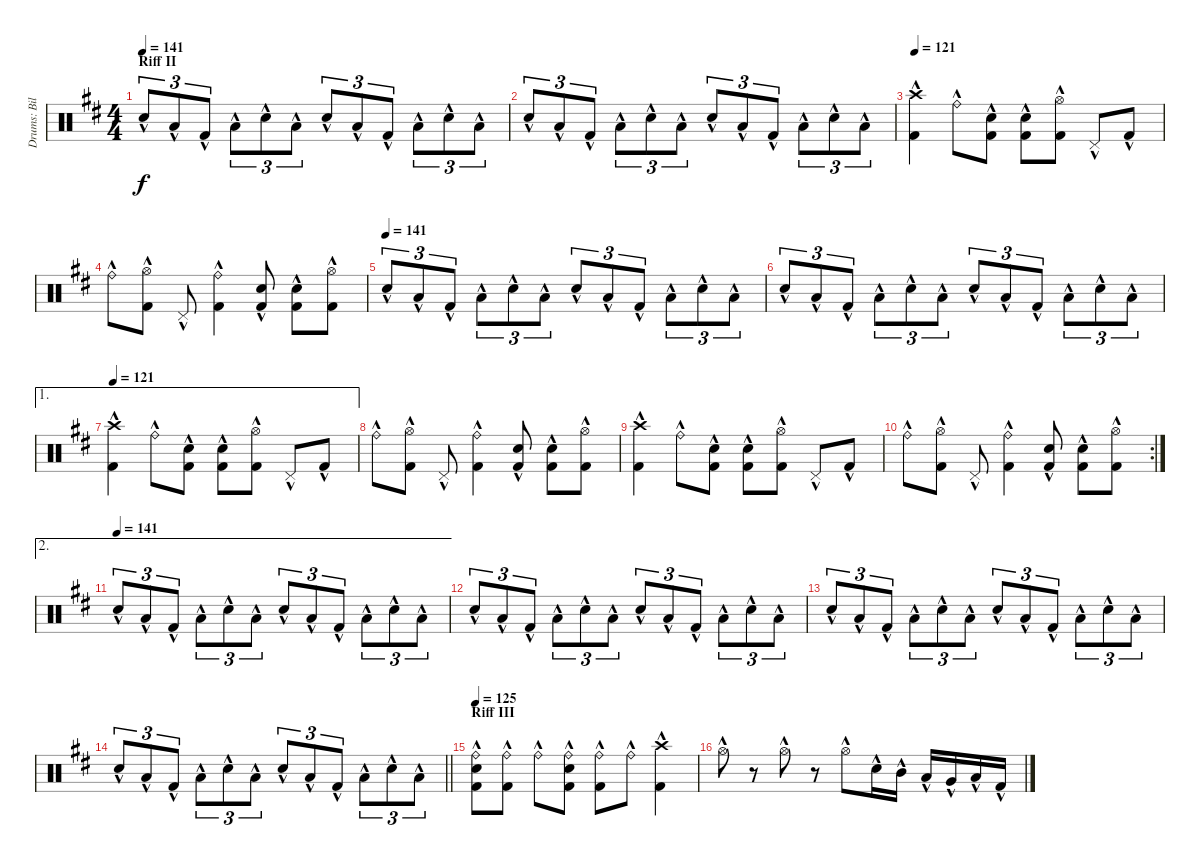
\track ("Drums: Bill" "Drums: Bil") {instrument percussion}
\staff {score}
\articulation defaults
\ts (4 4)
\section ("" "Riff II")
\tempo 141
\clef neutral
\ks d "Electric Snare (hit)"{hac}.8{tu (3 2) dy f} "Low Tom (hit)"{hac}.8{tu (3 2)} "Kick (hit) 2"{hac}.8{tu (3 2)} "Low Tom (hit)"{hac}.8{tu (3 2)} "Electric Snare (hit)"{hac}.8{tu (3 2)} "Low Tom (hit)"{hac}.8{tu (3 2)} "Electric Snare (hit)"{hac}.8{tu (3 2)} "Low Tom (hit)"{hac}.8{tu (3 2)} "Kick (hit) 2"{hac}.8{tu (3 2)} "Low Tom (hit)"{hac}.8{tu (3 2)} "Electric Snare (hit)"{hac}.8{tu (3 2)} "Low Tom (hit)"{hac}.8{tu (3 2)}
|
"Electric Snare (hit)"{hac}.8{tu (3 2)} "Low Tom (hit)"{hac}.8{tu (3 2)} "Kick (hit) 2"{hac}.8{tu (3 2)} "Low Tom (hit)"{hac}.8{tu (3 2)} "Electric Snare (hit)"{hac}.8{tu (3 2)} "Low Tom (hit)"{hac}.8{tu (3 2)} "Electric Snare (hit)"{hac}.8{tu (3 2)} "Low Tom (hit)"{hac}.8{tu (3 2)} "Kick (hit) 2"{hac}.8{tu (3 2)} "Low Tom (hit)"{hac}.8{tu (3 2)} "Electric Snare (hit)"{hac}.8{tu (3 2)} "Low Tom (hit)"{hac}.8{tu (3 2)} |
\tempo 121
("Crash high (hit)"{hac} "Kick (hit) 2"{hac}).4 "Ride (bell)"{hac}.8 ("Electric Snare (hit)"{hac} "Kick (hit) 2"{hac}).8 ("Electric Snare (hit)"{hac} "Kick (hit) 2"{hac}).8 ("Hi-Hat (open)"{hac} "Kick (hit) 2"{hac}).8 "Pedal Hi-Hat (hit)"{hac}.8 "Kick (hit) 2"{hac}.8 |
"Ride (bell)"{hac}.8 ("Hi-Hat (open)"{hac} "Kick (hit) 2"{hac}).8 "Pedal Hi-Hat (hit)"{hac}.8 ("Ride (bell)"{hac} "Kick (hit) 2"{hac}).4 ("Electric Snare (hit)"{hac} "Kick (hit) 2"{hac}).8 ("Electric Snare (hit)"{hac} "Kick (hit) 2"{hac}).8 ("Hi-Hat (open)"{hac} "Kick (hit) 2"{hac}).8 |
\tempo (141)
"Electric Snare (hit)"{hac}.8{tu (3 2)} "Low Tom (hit)"{hac}.8{tu (3 2)} "Kick (hit) 2"{hac}.8{tu (3 2)} "Low Tom (hit)"{hac}.8{tu (3 2)} "Electric Snare (hit)"{hac}.8{tu (3 2)} "Low Tom (hit)"{hac}.8{tu (3 2)} "Electric Snare (hit)"{hac}.8{tu (3 2)} "Low Tom (hit)"{hac}.8{tu (3 2)} "Kick (hit) 2"{hac}.8{tu (3 2)} "Low Tom (hit)"{hac}.8{tu (3 2)} "Electric Snare (hit)"{hac}.8{tu (3 2)} "Low Tom (hit)"{hac}.8{tu (3 2)} |
"Electric Snare (hit)"{hac}.8{tu (3 2)} "Low Tom (hit)"{hac}.8{tu (3 2)} "Kick (hit) 2"{hac}.8{tu (3 2)} "Low Tom (hit)"{hac}.8{tu (3 2)} "Electric Snare (hit)"{hac}.8{tu (3 2)} "Low Tom (hit)"{hac}.8{tu (3 2)} "Electric Snare (hit)"{hac}.8{tu (3 2)} "Low Tom (hit)"{hac}.8{tu (3 2)} "Kick (hit) 2"{hac}.8{tu (3 2)} "Low Tom (hit)"{hac}.8{tu (3 2)} "Electric Snare (hit)"{hac}.8{tu (3 2)} "Low Tom (hit)"{hac}.8{tu (3 2)} |
\ae 1
\tempo 121
("Crash high (hit)"{hac} "Kick (hit) 2"{hac}).4 "Ride (bell)"{hac}.8 ("Electric Snare (hit)"{hac} "Kick (hit) 2"{hac}).8 ("Electric Snare (hit)"{hac} "Kick (hit) 2"{hac}).8 ("Hi-Hat (open)"{hac} "Kick (hit) 2"{hac}).8 "Pedal Hi-Hat (hit)"{hac}.8 "Kick (hit) 2"{hac}.8 |
"Ride (bell)"{hac}.8 ("Hi-Hat (open)"{hac} "Kick (hit) 2"{hac}).8 "Pedal Hi-Hat (hit)"{hac}.8 ("Ride (bell)"{hac} "Kick (hit) 2"{hac}).4 ("Electric Snare (hit)"{hac} "Kick (hit) 2"{hac}).8 ("Electric Snare (hit)"{hac} "Kick (hit) 2"{hac}).8 ("Hi-Hat (open)"{hac} "Kick (hit) 2"{hac}).8 |
("Crash high (hit)"{hac} "Kick (hit) 2"{hac}).4 "Ride (bell)"{hac}.8 ("Electric Snare (hit)"{hac} "Kick (hit) 2"{hac}).8 ("Electric Snare (hit)"{hac} "Kick (hit) 2"{hac}).8 ("Hi-Hat (open)"{hac} "Kick (hit) 2"{hac}).8 "Pedal Hi-Hat (hit)"{hac}.8 "Kick (hit) 2"{hac}.8 |
\rc 2 "Ride (bell)"{hac}.8
("Hi-Hat (open)"{hac} "Kick (hit) 2"{hac}).8 "Pedal Hi-Hat (hit)"{hac}.8 ("Ride (bell)"{hac} "Kick (hit) 2"{hac}).4 ("Electric Snare (hit)"{hac} "Kick (hit) 2"{hac}).8 ("Electric Snare (hit)"{hac} "Kick (hit) 2"{hac}).8 ("Hi-Hat (open)"{hac} "Kick (hit) 2"{hac}).8 |
\ae 2
\tempo (141)
"Electric Snare (hit)"{hac}.8{tu (3 2)} "Low Tom (hit)"{hac}.8{tu (3 2)} "Kick (hit) 2"{hac}.8{tu (3 2)} "Low Tom (hit)"{hac}.8{tu (3 2)} "Electric Snare (hit)"{hac}.8{tu (3 2)} "Low Tom (hit)"{hac}.8{tu (3 2)} "Electric Snare (hit)"{hac}.8{tu (3 2)} "Low Tom (hit)"{hac}.8{tu (3 2)} "Kick (hit) 2"{hac}.8{tu (3 2)} "Low Tom (hit)"{hac}.8{tu (3 2)} "Electric Snare (hit)"{hac}.8{tu (3 2)} "Low Tom (hit)"{hac}.8{tu (3 2)} |
"Electric Snare (hit)"{hac}.8{tu (3 2)} "Low Tom (hit)"{hac}.8{tu (3 2)} "Kick (hit) 2"{hac}.8{tu (3 2)} "Low Tom (hit)"{hac}.8{tu (3 2)} "Electric Snare (hit)"{hac}.8{tu (3 2)} "Low Tom (hit)"{hac}.8{tu (3 2)} "Electric Snare (hit)"{hac}.8{tu (3 2)} "Low Tom (hit)"{hac}.8{tu (3 2)} "Kick (hit) 2"{hac}.8{tu (3 2)} "Low Tom (hit)"{hac}.8{tu (3 2)} "Electric Snare (hit)"{hac}.8{tu (3 2)} "Low Tom (hit)"{hac}.8{tu (3 2)} |
"Electric Snare (hit)"{hac}.8{tu (3 2)} "Low Tom (hit)"{hac}.8{tu (3 2)} "Kick (hit) 2"{hac}.8{tu (3 2)} "Low Tom (hit)"{hac}.8{tu (3 2)} "Electric Snare (hit)"{hac}.8{tu (3 2)} "Low Tom (hit)"{hac}.8{tu (3 2)} "Electric Snare (hit)"{hac}.8{tu (3 2)} "Low Tom (hit)"{hac}.8{tu (3 2)} "Kick (hit) 2"{hac}.8{tu (3 2)} "Low Tom (hit)"{hac}.8{tu (3 2)} "Electric Snare (hit)"{hac}.8{tu (3 2)} "Low Tom (hit)"{hac}.8{tu (3 2)} |
\barLineRight lightlight "Electric Snare (hit)"{hac}.8{tu (3 2)} "Low Tom (hit)"{hac}.8{tu (3 2)} "Kick (hit) 2"{hac}.8{tu (3 2)} "Low Tom (hit)"{hac}.8{tu (3 2)} "Electric Snare (hit)"{hac}.8{tu (3 2)} "Low Tom (hit)"{hac}.8{tu (3 2)} "Electric Snare (hit)"{hac}.8{tu (3 2)} "Low Tom (hit)"{hac}.8{tu (3 2)} "Kick (hit) 2"{hac}.8{tu (3 2)} "Low Tom (hit)"{hac}.8{tu (3 2)} "Electric Snare (hit)"{hac}.8{tu (3 2)} "Low Tom (hit)"{hac}.8{tu (3 2)}
|
\section ("" "Riff III")
\tempo 125
("Ride (bell)"{hac} "Snare (hit) 2"{hac} "Kick (hit) 2"{hac}).8 ("Ride (bell)"{hac} "Kick (hit) 2"{hac}).8 "Ride (bell)"{hac}.8 ("Ride (bell)"{hac} "Snare (hit) 2"{hac} "Kick (hit) 2"{hac}).8 ("Ride (bell)"{hac} "Kick (hit) 2"{hac}).8 "Ride (bell)"{hac}.8 ("Crash high (hit)"{hac} "Kick (hit) 2"{hac}).4 |
"Hi-Hat (open)"{hac}.8 r.8 "Hi-Hat (open)"{hac}.8 r.8 "Hi-Hat (open)"{hac}.8 "Snare (hit) 2"{hac}.16 "Mid Tom (hit)"{hac}.16 "Low Tom (hit)"{hac}.16 "Very Low Tom (hit)"{hac}.16 "Low Floor Tom (hit)"{hac}.16 "Kick (hit) 2"{hac}.16
